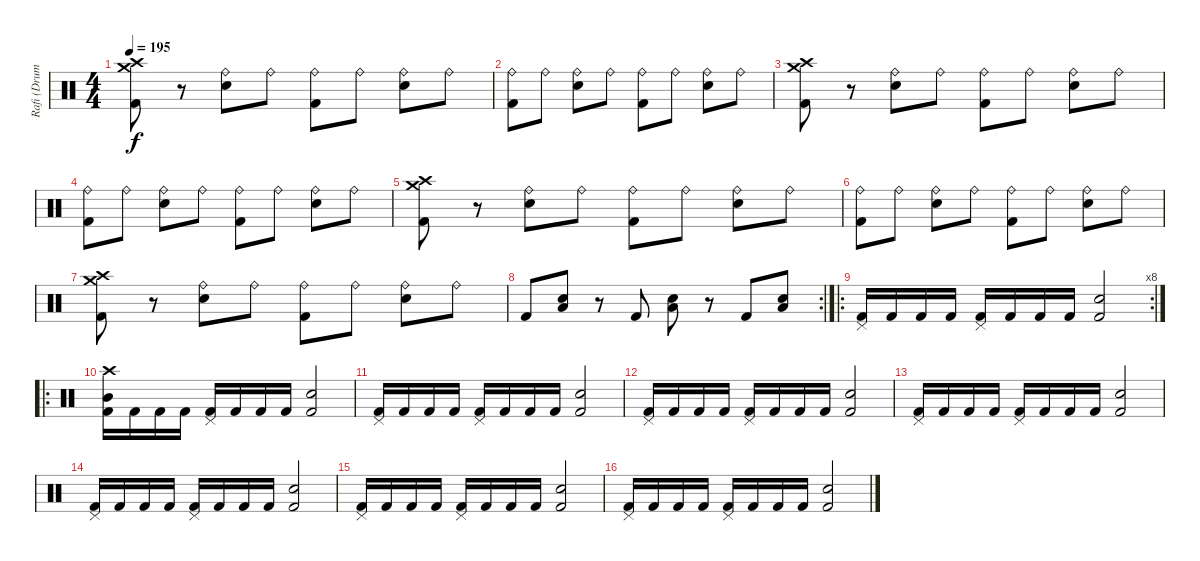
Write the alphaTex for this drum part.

\track ("Rafi (Drums)" "Rafi (Drum") {instrument percussion}
\staff {score}
\articulation defaults
\ts (4 4)
\tempo 195
\clef neutral
\ks c
("Crash medium (hit)" "Crash high (hit)" "Kick (hit) 2").8{dy f} r.8 ("Ride (bell)" "Snare (hit) 2").8 "Ride (bell)".8 ("Ride (bell)" "Kick (hit) 2").8 "Ride (bell)".8 ("Ride (bell)" "Snare (hit) 2").8 "Ride (bell)".8 |
("Ride (bell)" "Kick (hit) 2").8 "Ride (bell)".8 ("Ride (bell)" "Snare (hit) 2").8 "Ride (bell)".8 ("Ride (bell)" "Kick (hit) 2").8 "Ride (bell)".8 ("Ride (bell)" "Snare (hit) 2").8 "Ride (bell)".8 |
("Crash medium (hit)" "Crash high (hit)" "Kick (hit) 2").8 r.8 ("Ride (bell)" "Snare (hit) 2").8 "Ride (bell)".8 ("Ride (bell)" "Kick (hit) 2").8 "Ride (bell)".8 ("Ride (bell)" "Snare (hit) 2").8 "Ride (bell)".8 |
("Ride (bell)" "Kick (hit) 2").8 "Ride (bell)".8 ("Ride (bell)" "Snare (hit) 2").8 "Ride (bell)".8 ("Ride (bell)" "Kick (hit) 2").8 "Ride (bell)".8 ("Ride (bell)" "Snare (hit) 2").8 "Ride (bell)".8 |
("Crash medium (hit)" "Crash high (hit)" "Kick (hit) 2").8 r.8 ("Ride (bell)" "Snare (hit) 2").8 "Ride (bell)".8 ("Ride (bell)" "Kick (hit) 2").8 "Ride (bell)".8 ("Ride (bell)" "Snare (hit) 2").8 "Ride (bell)".8 |
("Ride (bell)" "Kick (hit) 2").8 "Ride (bell)".8 ("Ride (bell)" "Snare (hit) 2").8 "Ride (bell)".8 ("Ride (bell)" "Kick (hit) 2").8 "Ride (bell)".8 ("Ride (bell)" "Snare (hit) 2").8 "Ride (bell)".8 |
("Crash medium (hit)" "Crash high (hit)" "Kick (hit) 2").8 r.8 ("Ride (bell)" "Snare (hit) 2").8 "Ride (bell)".8 ("Ride (bell)" "Kick (hit) 2").8 "Ride (bell)".8 ("Ride (bell)" "Snare (hit) 2").8 "Ride (bell)".8 |
\rc 2 "Kick (hit) 2".8
("Low Floor Tom (hit)" "Snare (hit) 2").8 r.8 "Kick (hit) 2".8 ("Low Floor Tom (hit)" "Snare (hit) 2").8 r.8 "Kick (hit) 2".8 ("Low Floor Tom (hit)" "Snare (hit) 2").8 |
\ro
\rc 8
("Pedal Hi-Hat (hit)" "Kick (hit) 2").16 "Kick (hit) 2".16 "Kick (hit) 2".16 "Kick (hit) 2".16 ("Pedal Hi-Hat (hit)" "Kick (hit) 2").16 "Kick (hit) 2".16 "Kick (hit) 2".16 "Kick (hit) 2".16 ("Snare (hit) 2" "Kick (hit) 2").2 |
\ro
("Mid Tom (hit)" "Crash high (hit)" "Kick (hit) 2").16 "Kick (hit) 2".16 "Kick (hit) 2".16 "Kick (hit) 2".16 ("Pedal Hi-Hat (hit)" "Kick (hit) 2").16 "Kick (hit) 2".16 "Kick (hit) 2".16 "Kick (hit) 2".16 ("Snare (hit) 2" "Kick (hit) 2").2 |
("Pedal Hi-Hat (hit)" "Kick (hit) 2").16 "Kick (hit) 2".16 "Kick (hit) 2".16 "Kick (hit) 2".16 ("Pedal Hi-Hat (hit)" "Kick (hit) 2").16 "Kick (hit) 2".16 "Kick (hit) 2".16 "Kick (hit) 2".16 ("Snare (hit) 2" "Kick (hit) 2").2 |
("Pedal Hi-Hat (hit)" "Kick (hit) 2").16 "Kick (hit) 2".16 "Kick (hit) 2".16 "Kick (hit) 2".16 ("Pedal Hi-Hat (hit)" "Kick (hit) 2").16 "Kick (hit) 2".16 "Kick (hit) 2".16 "Kick (hit) 2".16 ("Snare (hit) 2" "Kick (hit) 2").2 |
("Pedal Hi-Hat (hit)" "Kick (hit) 2").16 "Kick (hit) 2".16 "Kick (hit) 2".16 "Kick (hit) 2".16 ("Pedal Hi-Hat (hit)" "Kick (hit) 2").16 "Kick (hit) 2".16 "Kick (hit) 2".16 "Kick (hit) 2".16 ("Snare (hit) 2" "Kick (hit) 2").2 |
("Pedal Hi-Hat (hit)" "Kick (hit) 2").16 "Kick (hit) 2".16 "Kick (hit) 2".16 "Kick (hit) 2".16 ("Pedal Hi-Hat (hit)" "Kick (hit) 2").16 "Kick (hit) 2".16 "Kick (hit) 2".16 "Kick (hit) 2".16 ("Snare (hit) 2" "Kick (hit) 2").2 |
("Pedal Hi-Hat (hit)" "Kick (hit) 2").16 "Kick (hit) 2".16 "Kick (hit) 2".16 "Kick (hit) 2".16 ("Pedal Hi-Hat (hit)" "Kick (hit) 2").16 "Kick (hit) 2".16 "Kick (hit) 2".16 "Kick (hit) 2".16 ("Snare (hit) 2" "Kick (hit) 2").2 |
("Pedal Hi-Hat (hit)" "Kick (hit) 2").16 "Kick (hit) 2".16 "Kick (hit) 2".16 "Kick (hit) 2".16 ("Pedal Hi-Hat (hit)" "Kick (hit) 2").16 "Kick (hit) 2".16 "Kick (hit) 2".16 "Kick (hit) 2".16 ("Snare (hit) 2" "Kick (hit) 2").2
